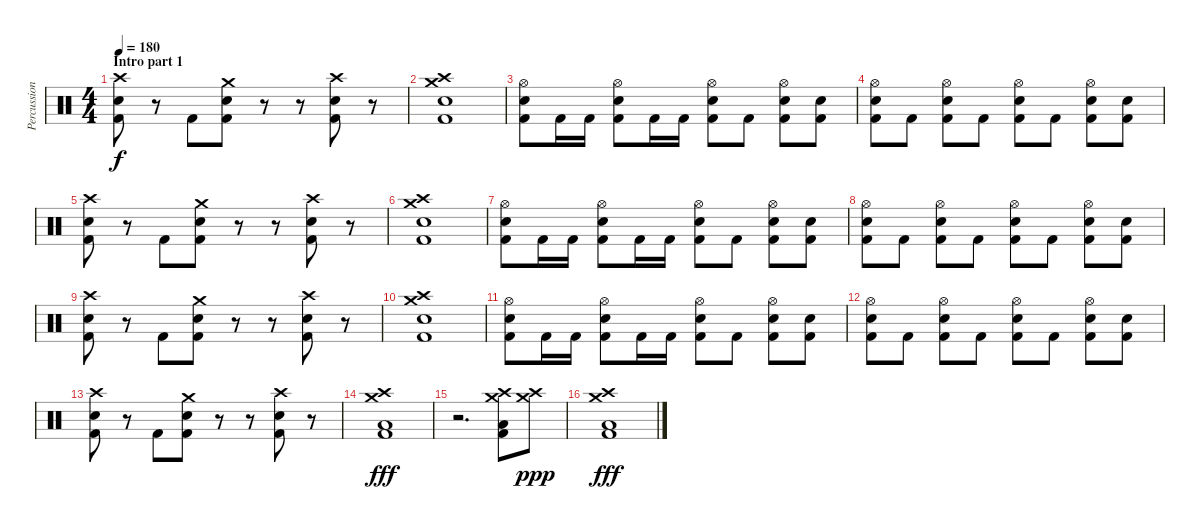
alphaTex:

\track ("Percussion" "Percussion") {instrument percussion}
\staff {score}
\articulation defaults
\ts (4 4)
\section ("" "Intro part 1")
\tempo 180
\clef neutral
\ks c
("Crash high (hit)" "Snare (hit) 2" "Kick (hit) 2").8{dy f} r.8 "Kick (hit) 2".8 ("Crash medium (hit)" "Snare (hit) 2" "Kick (hit) 2").8 r.8 r.8 ("Crash high (hit)" "Snare (hit) 2" "Kick (hit) 2").8 r.8 |
("Crash high (hit)" "Crash medium (hit)" "Snare (hit) 2" "Kick (hit) 2").1 |
("Hi-Hat (open)" "Snare (hit) 2" "Kick (hit) 2").8 "Kick (hit) 2".16 "Kick (hit) 2".16 ("Hi-Hat (open)" "Snare (hit) 2" "Kick (hit) 2").8 "Kick (hit) 2".16 "Kick (hit) 2".16 ("Hi-Hat (open)" "Snare (hit) 2" "Kick (hit) 2").8 "Kick (hit) 2".8 ("Hi-Hat (open)" "Snare (hit) 2" "Kick (hit) 2").8 ("Snare (hit) 2" "Kick (hit) 2").8 |
("Hi-Hat (open)" "Snare (hit) 2" "Kick (hit) 2").8 "Kick (hit) 2".8 ("Hi-Hat (open)" "Snare (hit) 2" "Kick (hit) 2").8 "Kick (hit) 2".8 ("Hi-Hat (open)" "Snare (hit) 2" "Kick (hit) 2").8 "Kick (hit) 2".8 ("Hi-Hat (open)" "Snare (hit) 2" "Kick (hit) 2").8 ("Snare (hit) 2" "Kick (hit) 2").8 |
("Crash high (hit)" "Snare (hit) 2" "Kick (hit) 2").8 r.8 "Kick (hit) 2".8 ("Crash medium (hit)" "Snare (hit) 2" "Kick (hit) 2").8 r.8 r.8 ("Crash high (hit)" "Snare (hit) 2" "Kick (hit) 2").8 r.8 |
("Crash high (hit)" "Crash medium (hit)" "Snare (hit) 2" "Kick (hit) 2").1 |
("Hi-Hat (open)" "Snare (hit) 2" "Kick (hit) 2").8 "Kick (hit) 2".16 "Kick (hit) 2".16 ("Hi-Hat (open)" "Snare (hit) 2" "Kick (hit) 2").8 "Kick (hit) 2".16 "Kick (hit) 2".16 ("Hi-Hat (open)" "Snare (hit) 2" "Kick (hit) 2").8 "Kick (hit) 2".8 ("Hi-Hat (open)" "Snare (hit) 2" "Kick (hit) 2").8 ("Snare (hit) 2" "Kick (hit) 2").8 |
("Hi-Hat (open)" "Snare (hit) 2" "Kick (hit) 2").8 "Kick (hit) 2".8 ("Hi-Hat (open)" "Snare (hit) 2" "Kick (hit) 2").8 "Kick (hit) 2".8 ("Hi-Hat (open)" "Snare (hit) 2" "Kick (hit) 2").8 "Kick (hit) 2".8 ("Hi-Hat (open)" "Snare (hit) 2" "Kick (hit) 2").8 ("Snare (hit) 2" "Kick (hit) 2").8 |
("Crash high (hit)" "Snare (hit) 2" "Kick (hit) 2").8 r.8 "Kick (hit) 2".8 ("Crash medium (hit)" "Snare (hit) 2" "Kick (hit) 2").8 r.8 r.8 ("Crash high (hit)" "Snare (hit) 2" "Kick (hit) 2").8 r.8 |
("Crash high (hit)" "Crash medium (hit)" "Snare (hit) 2" "Kick (hit) 2").1 |
("Hi-Hat (open)" "Snare (hit) 2" "Kick (hit) 2").8 "Kick (hit) 2".16 "Kick (hit) 2".16 ("Hi-Hat (open)" "Snare (hit) 2" "Kick (hit) 2").8 "Kick (hit) 2".16 "Kick (hit) 2".16 ("Hi-Hat (open)" "Snare (hit) 2" "Kick (hit) 2").8 "Kick (hit) 2".8 ("Hi-Hat (open)" "Snare (hit) 2" "Kick (hit) 2").8 ("Snare (hit) 2" "Kick (hit) 2").8 |
("Hi-Hat (open)" "Snare (hit) 2" "Kick (hit) 2").8 "Kick (hit) 2".8 ("Hi-Hat (open)" "Snare (hit) 2" "Kick (hit) 2").8 "Kick (hit) 2".8 ("Hi-Hat (open)" "Snare (hit) 2" "Kick (hit) 2").8 "Kick (hit) 2".8 ("Hi-Hat (open)" "Snare (hit) 2" "Kick (hit) 2").8 ("Snare (hit) 2" "Kick (hit) 2").8 |
("Crash high (hit)" "Snare (hit) 2" "Kick (hit) 2").8 r.8 "Kick (hit) 2".8 ("Crash medium (hit)" "Snare (hit) 2" "Kick (hit) 2").8 r.8 r.8 ("Crash high (hit)" "Snare (hit) 2" "Kick (hit) 2").8 r.8 |
("Crash high (hit)" "Crash medium (hit)" "Low Floor Tom (hit)" "Kick (hit) 2").1{dy fff} |
r.2{d} ("Crash high (hit)" "Crash medium (hit)" "Low Floor Tom (hit)" "Kick (hit) 2").8 ("Crash high (hit)" "Crash medium (hit)").8{dy ppp} |
("Crash high (hit)" "Crash medium (hit)" "Low Floor Tom (hit)" "Kick (hit) 2").1{dy fff}
